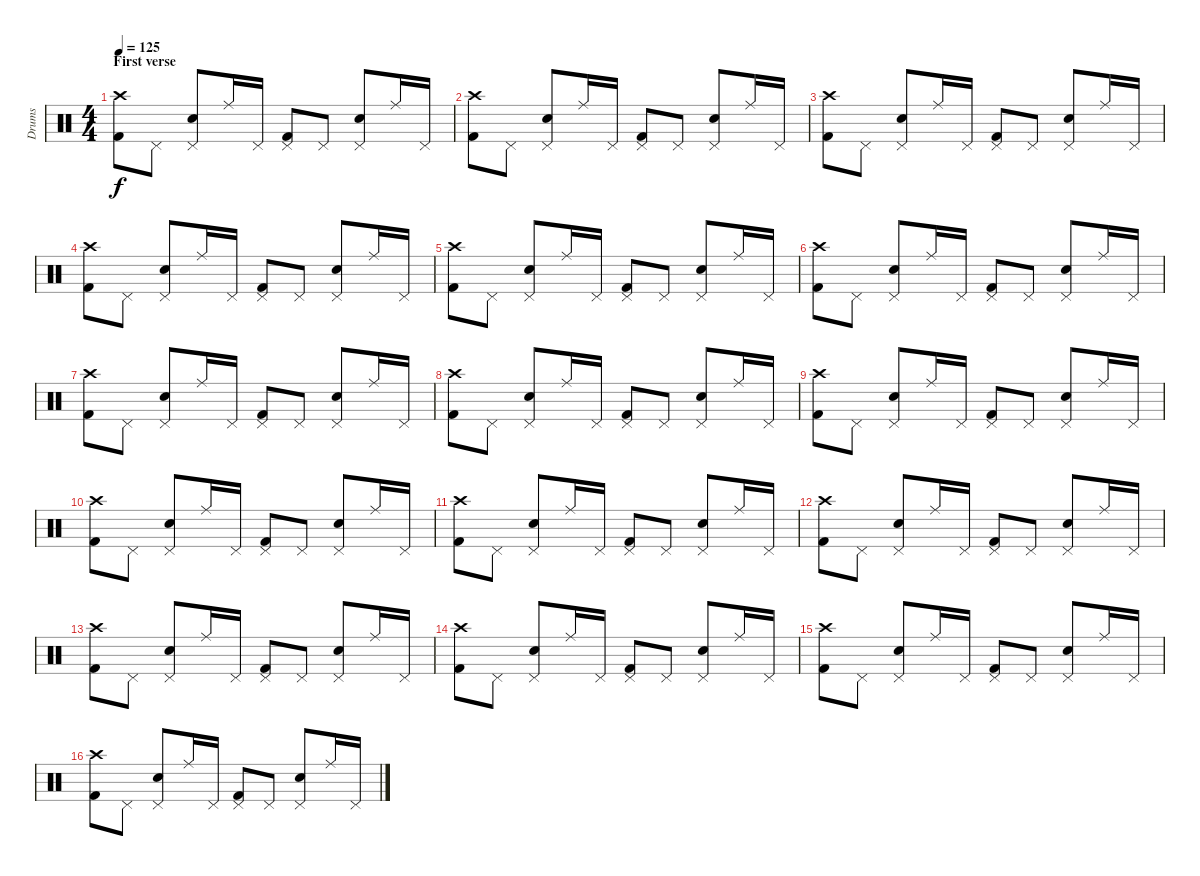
\track ("Drums" "Drums") {instrument percussion}
\staff {score}
\articulation defaults
\ts (4 4)
\section ("" "First verse")
\tempo 125
\clef neutral
\ks c
("Crash high (hit)" "Kick (hit) 2").8{dy f} "Pedal Hi-Hat (hit)".8 ("Pedal Hi-Hat (hit)" "Snare (hit) 2").8 "Ride (middle)".16 "Pedal Hi-Hat (hit)".16 ("Pedal Hi-Hat (hit)" "Kick (hit) 2").8 "Pedal Hi-Hat (hit)".8 ("Pedal Hi-Hat (hit)" "Snare (hit) 2").8 "Ride (middle)".16 "Pedal Hi-Hat (hit)".16 |
("Crash high (hit)" "Kick (hit) 2").8 "Pedal Hi-Hat (hit)".8 ("Pedal Hi-Hat (hit)" "Snare (hit) 2").8 "Ride (middle)".16 "Pedal Hi-Hat (hit)".16 ("Pedal Hi-Hat (hit)" "Kick (hit) 2").8 "Pedal Hi-Hat (hit)".8 ("Pedal Hi-Hat (hit)" "Snare (hit) 2").8 "Ride (middle)".16 "Pedal Hi-Hat (hit)".16 |
("Crash high (hit)" "Kick (hit) 2").8 "Pedal Hi-Hat (hit)".8 ("Pedal Hi-Hat (hit)" "Snare (hit) 2").8 "Ride (middle)".16 "Pedal Hi-Hat (hit)".16 ("Pedal Hi-Hat (hit)" "Kick (hit) 2").8 "Pedal Hi-Hat (hit)".8 ("Pedal Hi-Hat (hit)" "Snare (hit) 2").8 "Ride (middle)".16 "Pedal Hi-Hat (hit)".16 |
("Crash high (hit)" "Kick (hit) 2").8 "Pedal Hi-Hat (hit)".8 ("Pedal Hi-Hat (hit)" "Snare (hit) 2").8 "Ride (middle)".16 "Pedal Hi-Hat (hit)".16 ("Pedal Hi-Hat (hit)" "Kick (hit) 2").8 "Pedal Hi-Hat (hit)".8 ("Pedal Hi-Hat (hit)" "Snare (hit) 2").8 "Ride (middle)".16 "Pedal Hi-Hat (hit)".16 |
("Crash high (hit)" "Kick (hit) 2").8 "Pedal Hi-Hat (hit)".8 ("Pedal Hi-Hat (hit)" "Snare (hit) 2").8 "Ride (middle)".16 "Pedal Hi-Hat (hit)".16 ("Pedal Hi-Hat (hit)" "Kick (hit) 2").8 "Pedal Hi-Hat (hit)".8 ("Pedal Hi-Hat (hit)" "Snare (hit) 2").8 "Ride (middle)".16 "Pedal Hi-Hat (hit)".16 |
("Crash high (hit)" "Kick (hit) 2").8 "Pedal Hi-Hat (hit)".8 ("Pedal Hi-Hat (hit)" "Snare (hit) 2").8 "Ride (middle)".16 "Pedal Hi-Hat (hit)".16 ("Pedal Hi-Hat (hit)" "Kick (hit) 2").8 "Pedal Hi-Hat (hit)".8 ("Pedal Hi-Hat (hit)" "Snare (hit) 2").8 "Ride (middle)".16 "Pedal Hi-Hat (hit)".16 |
("Crash high (hit)" "Kick (hit) 2").8 "Pedal Hi-Hat (hit)".8 ("Pedal Hi-Hat (hit)" "Snare (hit) 2").8 "Ride (middle)".16 "Pedal Hi-Hat (hit)".16 ("Pedal Hi-Hat (hit)" "Kick (hit) 2").8 "Pedal Hi-Hat (hit)".8 ("Pedal Hi-Hat (hit)" "Snare (hit) 2").8 "Ride (middle)".16 "Pedal Hi-Hat (hit)".16 |
("Crash high (hit)" "Kick (hit) 2").8 "Pedal Hi-Hat (hit)".8 ("Pedal Hi-Hat (hit)" "Snare (hit) 2").8 "Ride (middle)".16 "Pedal Hi-Hat (hit)".16 ("Pedal Hi-Hat (hit)" "Kick (hit) 2").8 "Pedal Hi-Hat (hit)".8 ("Pedal Hi-Hat (hit)" "Snare (hit) 2").8 "Ride (middle)".16 "Pedal Hi-Hat (hit)".16 |
("Crash high (hit)" "Kick (hit) 2").8 "Pedal Hi-Hat (hit)".8 ("Pedal Hi-Hat (hit)" "Snare (hit) 2").8 "Ride (middle)".16 "Pedal Hi-Hat (hit)".16 ("Pedal Hi-Hat (hit)" "Kick (hit) 2").8 "Pedal Hi-Hat (hit)".8 ("Pedal Hi-Hat (hit)" "Snare (hit) 2").8 "Ride (middle)".16 "Pedal Hi-Hat (hit)".16 |
("Crash high (hit)" "Kick (hit) 2").8 "Pedal Hi-Hat (hit)".8 ("Pedal Hi-Hat (hit)" "Snare (hit) 2").8 "Ride (middle)".16 "Pedal Hi-Hat (hit)".16 ("Pedal Hi-Hat (hit)" "Kick (hit) 2").8 "Pedal Hi-Hat (hit)".8 ("Pedal Hi-Hat (hit)" "Snare (hit) 2").8 "Ride (middle)".16 "Pedal Hi-Hat (hit)".16 |
("Crash high (hit)" "Kick (hit) 2").8 "Pedal Hi-Hat (hit)".8 ("Pedal Hi-Hat (hit)" "Snare (hit) 2").8 "Ride (middle)".16 "Pedal Hi-Hat (hit)".16 ("Pedal Hi-Hat (hit)" "Kick (hit) 2").8 "Pedal Hi-Hat (hit)".8 ("Pedal Hi-Hat (hit)" "Snare (hit) 2").8 "Ride (middle)".16 "Pedal Hi-Hat (hit)".16 |
("Crash high (hit)" "Kick (hit) 2").8 "Pedal Hi-Hat (hit)".8 ("Pedal Hi-Hat (hit)" "Snare (hit) 2").8 "Ride (middle)".16 "Pedal Hi-Hat (hit)".16 ("Pedal Hi-Hat (hit)" "Kick (hit) 2").8 "Pedal Hi-Hat (hit)".8 ("Pedal Hi-Hat (hit)" "Snare (hit) 2").8 "Ride (middle)".16 "Pedal Hi-Hat (hit)".16 |
("Crash high (hit)" "Kick (hit) 2").8 "Pedal Hi-Hat (hit)".8 ("Pedal Hi-Hat (hit)" "Snare (hit) 2").8 "Ride (middle)".16 "Pedal Hi-Hat (hit)".16 ("Pedal Hi-Hat (hit)" "Kick (hit) 2").8 "Pedal Hi-Hat (hit)".8 ("Pedal Hi-Hat (hit)" "Snare (hit) 2").8 "Ride (middle)".16 "Pedal Hi-Hat (hit)".16 |
("Crash high (hit)" "Kick (hit) 2").8 "Pedal Hi-Hat (hit)".8 ("Pedal Hi-Hat (hit)" "Snare (hit) 2").8 "Ride (middle)".16 "Pedal Hi-Hat (hit)".16 ("Pedal Hi-Hat (hit)" "Kick (hit) 2").8 "Pedal Hi-Hat (hit)".8 ("Pedal Hi-Hat (hit)" "Snare (hit) 2").8 "Ride (middle)".16 "Pedal Hi-Hat (hit)".16 |
("Crash high (hit)" "Kick (hit) 2").8 "Pedal Hi-Hat (hit)".8 ("Pedal Hi-Hat (hit)" "Snare (hit) 2").8 "Ride (middle)".16 "Pedal Hi-Hat (hit)".16 ("Pedal Hi-Hat (hit)" "Kick (hit) 2").8 "Pedal Hi-Hat (hit)".8 ("Pedal Hi-Hat (hit)" "Snare (hit) 2").8 "Ride (middle)".16 "Pedal Hi-Hat (hit)".16 |
("Crash high (hit)" "Kick (hit) 2").8 "Pedal Hi-Hat (hit)".8 ("Pedal Hi-Hat (hit)" "Snare (hit) 2").8 "Ride (middle)".16 "Pedal Hi-Hat (hit)".16 ("Pedal Hi-Hat (hit)" "Kick (hit) 2").8 "Pedal Hi-Hat (hit)".8 ("Pedal Hi-Hat (hit)" "Snare (hit) 2").8 "Ride (middle)".16 "Pedal Hi-Hat (hit)".16
